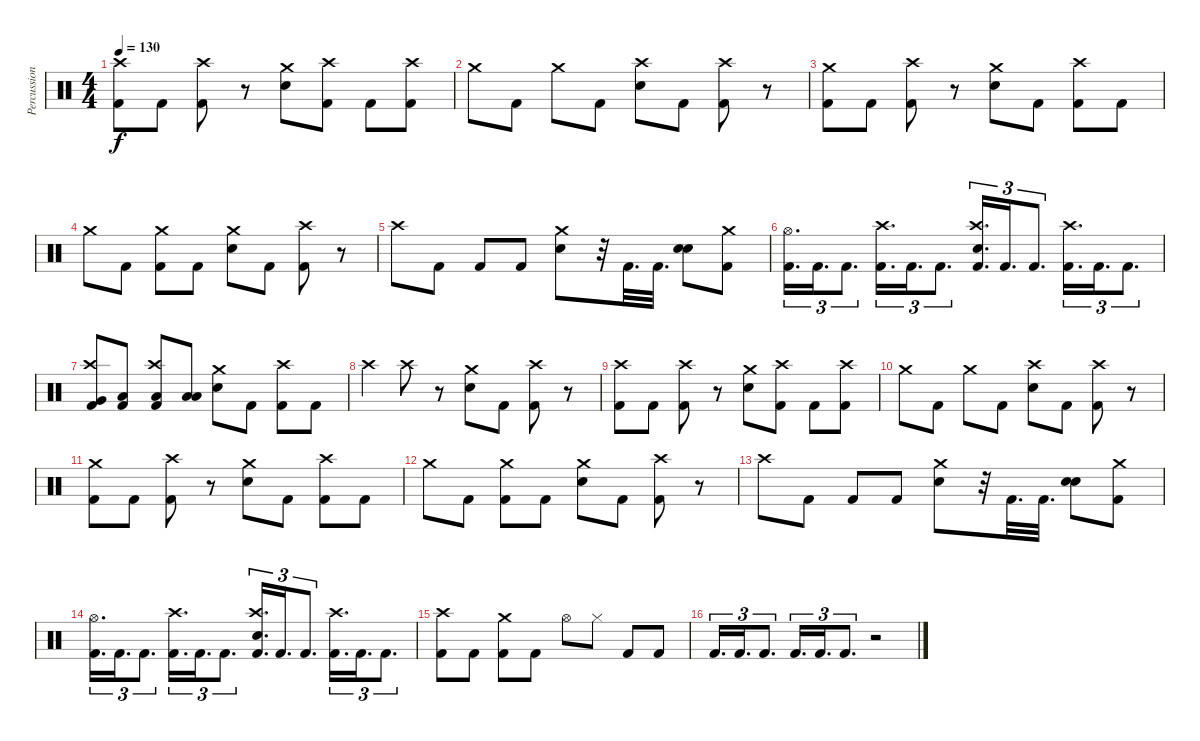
\track ("Percussion" "Percussion") {instrument percussion}
\staff {score}
\articulation defaults
\ts (4 4)
\tempo 130
\clef neutral
\ks c
("Kick (hit) 2" "Crash high (hit)").8{dy f} "Kick (hit) 2".8 ("Kick (hit) 2" "Crash high (hit)").8 r.8 ("Electric Snare (hit)" "Crash medium (hit)").8 ("Kick (hit) 2" "Crash high (hit)").8 "Kick (hit) 2".8 ("Kick (hit) 2" "Crash high (hit)").8 |
"Crash medium (hit)".8 "Kick (hit) 2".8 "Crash medium (hit)".8 "Kick (hit) 2".8 ("Electric Snare (hit)" "Crash high (hit)").8 "Kick (hit) 2".8 ("Kick (hit) 2" "Crash high (hit)").8 r.8 |
("Kick (hit) 2" "Crash medium (hit)").8 "Kick (hit) 2".8 ("Kick (hit) 2" "Crash high (hit)").8 r.8 ("Electric Snare (hit)" "Crash medium (hit)").8 "Kick (hit) 2".8 ("Kick (hit) 2" "Crash high (hit)").8 "Kick (hit) 2".8 |
"Crash medium (hit)".8 "Kick (hit) 2".8 ("Kick (hit) 2" "Crash medium (hit)").8 "Kick (hit) 2".8 ("Electric Snare (hit)" "Crash medium (hit)").8 "Kick (hit) 2".8 ("Kick (hit) 2" "Crash high (hit)").8 r.8 |
"Crash high (hit)".8{volume 13} "Kick (hit) 2".8 "Kick (hit) 2".8 "Kick (hit) 2".8 ("Crash medium (hit)" "Electric Snare (hit)").8 r.32 "Kick (hit) 2".32{d} "Kick (hit) 2".32{d} ("Electric Snare (hit)" "Electric Snare (hit)").8 ("Crash medium (hit)" "Kick (hit) 2").8 |
("Hi-Hat (open)" "Kick (hit) 2").16{d tu (3 2)} "Kick (hit) 2".16{d tu (3 2)} "Kick (hit) 2".8{d tu (3 2)} ("Crash high (hit)" "Kick (hit) 2").16{d tu (3 2)} "Kick (hit) 2".16{d tu (3 2)} "Kick (hit) 2".8{d tu (3 2)} ("Crash high (hit)" "Electric Snare (hit)" "Kick (hit) 2").16{d tu (3 2)} "Kick (hit) 2".16{d tu (3 2)} "Kick (hit) 2".8{d tu (3 2)} ("Crash high (hit)" "Kick (hit) 2").16{d tu (3 2)} "Kick (hit) 2".16{d tu (3 2)} "Kick (hit) 2".8{d tu (3 2)} |
("Very Low Tom (hit)" "Crash high (hit)" "Kick (hit) 2").8 ("Low Tom (hit)" "Kick (hit) 2").8 ("Low Floor Tom (hit)" "Crash high (hit)" "Kick (hit) 2").8 ("Low Tom (hit)" "Low Tom (hit)").8 ("Electric Snare (hit)" "Crash medium (hit)").8 "Kick (hit) 2".8 ("Kick (hit) 2" "Crash high (hit)").8 "Kick (hit) 2".8 |
"Crash high (hit)".4 "Crash high (hit)".8 r.8 ("Electric Snare (hit)" "Crash medium (hit)").8 "Kick (hit) 2".8 ("Kick (hit) 2" "Crash high (hit)").8 r.8 |
("Kick (hit) 2" "Crash high (hit)").8 "Kick (hit) 2".8 ("Kick (hit) 2" "Crash high (hit)").8 r.8 ("Electric Snare (hit)" "Crash medium (hit)").8 ("Kick (hit) 2" "Crash high (hit)").8 "Kick (hit) 2".8 ("Kick (hit) 2" "Crash high (hit)").8 |
"Crash medium (hit)".8 "Kick (hit) 2".8 "Crash medium (hit)".8 "Kick (hit) 2".8 ("Electric Snare (hit)" "Crash high (hit)").8 "Kick (hit) 2".8 ("Kick (hit) 2" "Crash high (hit)").8 r.8 |
("Kick (hit) 2" "Crash medium (hit)").8 "Kick (hit) 2".8 ("Kick (hit) 2" "Crash high (hit)").8 r.8 ("Electric Snare (hit)" "Crash medium (hit)").8 "Kick (hit) 2".8 ("Kick (hit) 2" "Crash high (hit)").8 "Kick (hit) 2".8 |
"Crash medium (hit)".8 "Kick (hit) 2".8 ("Kick (hit) 2" "Crash medium (hit)").8 "Kick (hit) 2".8 ("Electric Snare (hit)" "Crash medium (hit)").8 "Kick (hit) 2".8 ("Kick (hit) 2" "Crash high (hit)").8 r.8 |
"Crash high (hit)".8{volume 13} "Kick (hit) 2".8 "Kick (hit) 2".8 "Kick (hit) 2".8 ("Crash medium (hit)" "Electric Snare (hit)").8 r.32 "Kick (hit) 2".32{d} "Kick (hit) 2".32{d} ("Electric Snare (hit)" "Electric Snare (hit)").8 ("Crash medium (hit)" "Kick (hit) 2").8 |
("Hi-Hat (open)" "Kick (hit) 2").16{d tu (3 2)} "Kick (hit) 2".16{d tu (3 2)} "Kick (hit) 2".8{d tu (3 2)} ("Crash high (hit)" "Kick (hit) 2").16{d tu (3 2)} "Kick (hit) 2".16{d tu (3 2)} "Kick (hit) 2".8{d tu (3 2)} ("Crash high (hit)" "Electric Snare (hit)" "Kick (hit) 2").16{d tu (3 2)} "Kick (hit) 2".16{d tu (3 2)} "Kick (hit) 2".8{d tu (3 2)} ("Crash high (hit)" "Kick (hit) 2").16{d tu (3 2)} "Kick (hit) 2".16{d tu (3 2)} "Kick (hit) 2".8{d tu (3 2)} |
("Crash high (hit)" "Kick (hit) 2").8 "Kick (hit) 2".8 ("Crash medium (hit)" "Kick (hit) 2").8 "Kick (hit) 2".8 "Hi-Hat (open)".8 "Hi-Hat (closed)".8 "Kick (hit) 2".8 "Kick (hit) 2".8 |
"Kick (hit) 2".16{d tu (3 2)} "Kick (hit) 2".16{d tu (3 2)} "Kick (hit) 2".8{d tu (3 2)} "Kick (hit) 2".16{d tu (3 2)} "Kick (hit) 2".16{d tu (3 2)} "Kick (hit) 2".8{d tu (3 2)} r.2
